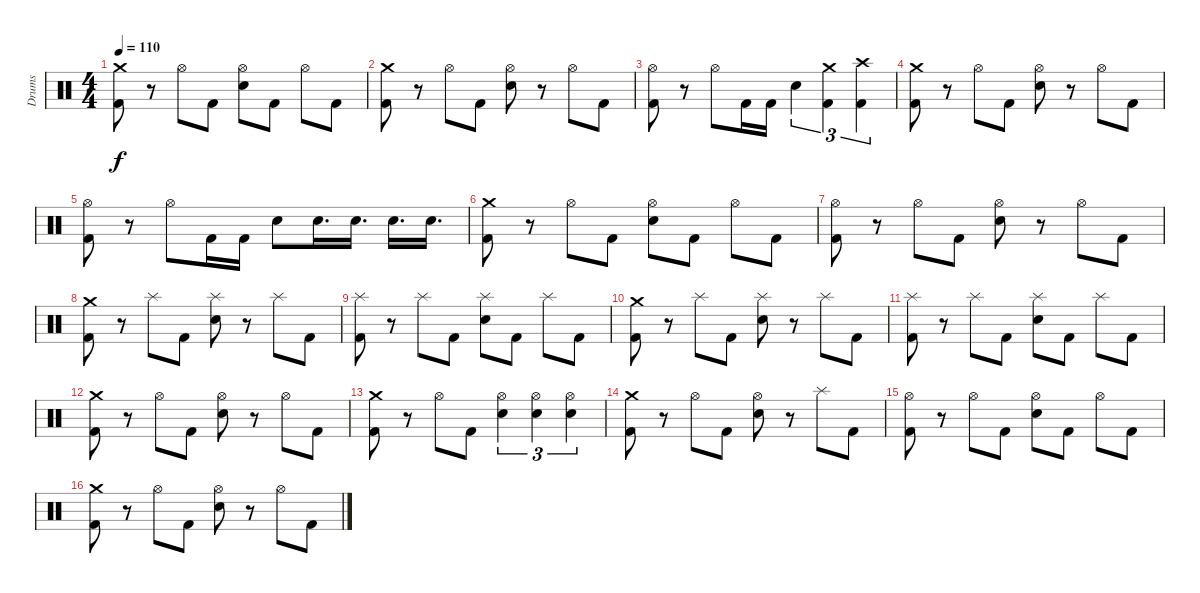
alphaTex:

\track ("Drums" "Drums") {instrument percussion}
\staff {score}
\articulation defaults
\ts (4 4)
\tempo 110
\clef neutral
\ks c
("Crash medium (hit)" "Kick (hit) 2").8{dy f} r.8 "Hi-Hat (open)".8 "Kick (hit) 2".8 ("Hi-Hat (open)" "Snare (hit) 2").8 "Kick (hit) 2".8 "Hi-Hat (open)".8 "Kick (hit) 2".8 |
("Crash medium (hit)" "Kick (hit) 2").8 r.8 "Hi-Hat (open)".8 "Kick (hit) 2".8 ("Hi-Hat (open)" "Snare (hit) 2").8 r.8 "Hi-Hat (open)".8 "Kick (hit) 2".8 |
("Hi-Hat (open)" "Kick (hit) 2").8 r.8 "Hi-Hat (open)".8 "Kick (hit) 2".16 "Kick (hit) 2".16 "Snare (hit) 2".4{tu (3 2)} ("Crash medium (hit)" "Kick (hit) 2").4{tu (3 2)} ("Crash high (hit)" "Kick (hit) 2").4{tu (3 2)} |
("Crash medium (hit)" "Kick (hit) 2").8 r.8 "Hi-Hat (open)".8 "Kick (hit) 2".8 ("Hi-Hat (open)" "Snare (hit) 2").8 r.8 "Hi-Hat (open)".8 "Kick (hit) 2".8 |
("Hi-Hat (open)" "Kick (hit) 2").8 r.8 "Hi-Hat (open)".8 "Kick (hit) 2".16 "Kick (hit) 2".16 "Snare (hit) 2".8 "Snare (hit) 2".16{d} "Snare (hit) 2".16{d} "Snare (hit) 2".16{d} "Snare (hit) 2".16{d} |
("Crash medium (hit)" "Kick (hit) 2").8 r.8 "Hi-Hat (open)".8 "Kick (hit) 2".8 ("Hi-Hat (open)" "Snare (hit) 2").8 "Kick (hit) 2".8 "Hi-Hat (open)".8 "Kick (hit) 2".8 |
("Hi-Hat (open)" "Kick (hit) 2").8 r.8 "Hi-Hat (open)".8 "Kick (hit) 2".8 ("Hi-Hat (open)" "Snare (hit) 2").8 r.8 "Hi-Hat (open)".8 "Kick (hit) 2".8 |
("Crash medium (hit)" "Kick (hit) 2").8 r.8 "Splash (hit)".8 "Kick (hit) 2".8 ("Splash (hit)" "Snare (hit) 2").8 r.8 "Splash (hit)".8 "Kick (hit) 2".8 |
("Splash (hit)" "Kick (hit) 2").8 r.8 "Splash (hit)".8 "Kick (hit) 2".8 ("Splash (hit)" "Snare (hit) 2").8 "Kick (hit) 2".8 "Splash (hit)".8 "Kick (hit) 2".8 |
("Crash medium (hit)" "Kick (hit) 2").8 r.8 "Splash (hit)".8 "Kick (hit) 2".8 ("Splash (hit)" "Snare (hit) 2").8 r.8 "Splash (hit)".8 "Kick (hit) 2".8 |
("Splash (hit)" "Kick (hit) 2").8 r.8 "Splash (hit)".8 "Kick (hit) 2".8 ("Splash (hit)" "Snare (hit) 2").8 "Kick (hit) 2".8 "Splash (hit)".8 "Kick (hit) 2".8 |
("Crash medium (hit)" "Kick (hit) 2").8 r.8 "Hi-Hat (open)".8 "Kick (hit) 2".8 ("Hi-Hat (open)" "Snare (hit) 2").8 r.8 "Hi-Hat (open)".8 "Kick (hit) 2".8 |
("Crash medium (hit)" "Kick (hit) 2").8 r.8 "Hi-Hat (open)".8 "Kick (hit) 2".8 ("Hi-Hat (open)" "Snare (hit) 2").4{tu (3 2)} ("Hi-Hat (open)" "Snare (hit) 2").4{tu (3 2)} ("Hi-Hat (open)" "Snare (hit) 2").4{tu (3 2)} |
("Crash medium (hit)" "Kick (hit) 2").8 r.8 "Hi-Hat (open)".8 "Kick (hit) 2".8 ("Hi-Hat (open)" "Snare (hit) 2").8 r.8 "Splash (hit)".8 "Kick (hit) 2".8 |
("Hi-Hat (open)" "Kick (hit) 2").8 r.8 "Hi-Hat (open)".8 "Kick (hit) 2".8 ("Hi-Hat (open)" "Snare (hit) 2").8 "Kick (hit) 2".8 "Hi-Hat (open)".8 "Kick (hit) 2".8 |
("Crash medium (hit)" "Kick (hit) 2").8 r.8 "Hi-Hat (open)".8 "Kick (hit) 2".8 ("Hi-Hat (open)" "Snare (hit) 2").8 r.8 "Hi-Hat (open)".8 "Kick (hit) 2".8
